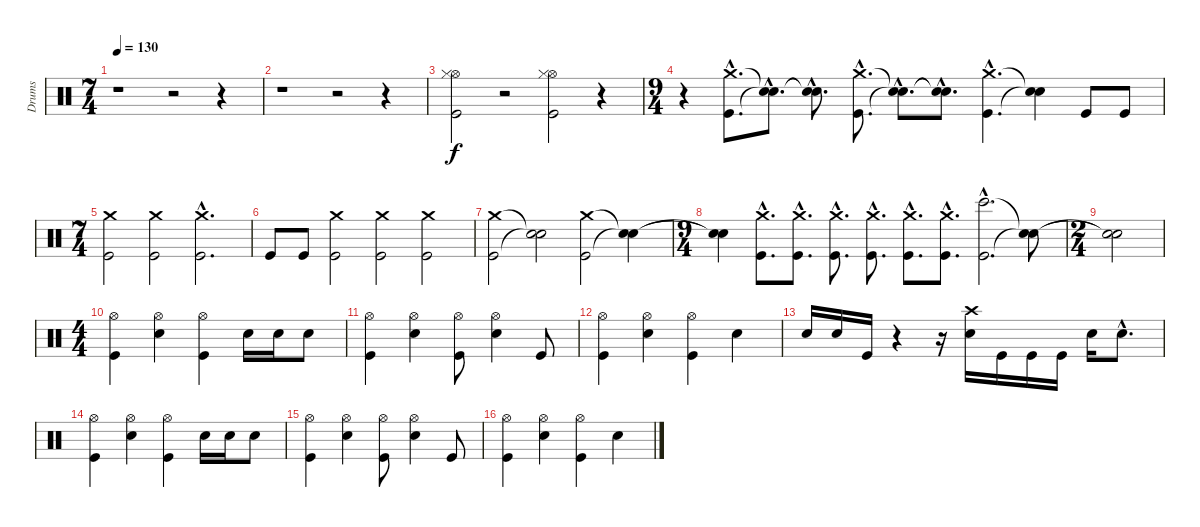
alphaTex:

\track ("Drums" "Drums") {instrument percussion}
\staff {score}
\articulation defaults
\ts (7 4)
\tempo 130
\clef neutral
\ks c
r.1{dy f} r.2 r.4 |
r.1 r.2 r.4 |
("Hi-Hat (open)" "Hi-Hat (closed)"{x} "Kick (hit)").2 r.2 ("Hi-Hat (open)" "Hi-Hat (closed)"{x} "Kick (hit)").2 r.4 |
\ts (9 4)
r.4 ("Crash medium (hit)"{hac} "Kick (hit)"{hac}).8{d} ("Snare (hit)"{hac t} "Snare (hit)"{hac t}).8{d} ("Snare (hit)"{hac t} "Snare (hit)"{hac t}).8{d} ("Crash medium (hit)"{hac} "Kick (hit)"{hac}).8{d} ("Snare (hit)"{hac t} "Snare (hit)"{hac t}).8{d} ("Snare (hit)"{hac t} "Snare (hit)"{hac t}).8{d} ("Crash medium (hit)"{hac} "Kick (hit)"{hac}).4{d} ("Snare (hit)"{t} "Snare (hit)"{t}).4 "Kick (hit)".8 "Kick (hit)".8 |
\ts (7 4)
("Crash medium (hit)" "Kick (hit)").2 ("Crash medium (hit)" "Kick (hit)").2 ("Crash medium (hit)"{hac} "Kick (hit)"{hac}).2{d} |
"Kick (hit)".8 "Kick (hit)".8 ("Crash medium (hit)" "Kick (hit)").2 ("Crash medium (hit)" "Kick (hit)").2 ("Crash medium (hit)" "Kick (hit)").2 |
("Crash medium (hit)" "Kick (hit)").2 ("Snare (hit)"{t} "Snare (hit)"{t}).2 ("Crash medium (hit)" "Kick (hit)").2 ("Snare (hit)"{t} "Snare (hit)"{t}).4 |
\ts (9 4)
("Snare (hit)"{t} "Snare (hit)"{t}).4 ("Crash medium (hit)"{hac} "Kick (hit)"{hac}).8{d} ("Crash medium (hit)"{hac} "Kick (hit)"{hac}).8{d} ("Crash medium (hit)"{hac} "Kick (hit)"{hac}).8{d} ("Crash medium (hit)"{hac} "Kick (hit)"{hac}).8{d} ("Crash medium (hit)"{hac} "Kick (hit)"{hac}).8{d} ("Crash medium (hit)"{hac} "Kick (hit)"{hac}).8{d} ("Bongo High (hit)"{hac} "Kick (hit)"{hac}).2{d} ("Snare (hit)"{t} "Snare (hit)"{t}).8 |
\ts (2 4)
("Snare (hit)"{t} "Snare (hit)"{t}).2 |
\ts (4 4)
("Kick (hit)" "Hi-Hat (open)").4 ("Snare (hit) 2" "Hi-Hat (open)").4 ("Kick (hit)" "Hi-Hat (open)").4 "Snare (hit) 2".16 "Snare (hit) 2".16 "Snare (hit) 2".8 |
("Hi-Hat (open)" "Kick (hit)").4 ("Hi-Hat (open)" "Snare (hit) 2").4 ("Hi-Hat (open)" "Kick (hit)").8 ("Hi-Hat (open)" "Snare (hit) 2").4 "Kick (hit)".8 |
("Hi-Hat (open)" "Kick (hit)").4 ("Hi-Hat (open)" "Snare (hit) 2").4 ("Hi-Hat (open)" "Kick (hit)").4 "Snare (hit) 2".4 |
"Snare (hit) 2".16 "Snare (hit) 2".16 "Kick (hit)".16 r.4 r.16 ("Crash high (hit)" "Snare (hit) 2").16 "Kick (hit)".16 "Kick (hit)".16 "Kick (hit)".16 "Snare (hit) 2".16 "Snare (hit) 2"{hac}.8{d} |
("Kick (hit)" "Hi-Hat (open)").4 ("Snare (hit) 2" "Hi-Hat (open)").4 ("Kick (hit)" "Hi-Hat (open)").4 "Snare (hit) 2".16 "Snare (hit) 2".16 "Snare (hit) 2".8 |
("Hi-Hat (open)" "Kick (hit)").4 ("Hi-Hat (open)" "Snare (hit) 2").4 ("Hi-Hat (open)" "Kick (hit)").8 ("Hi-Hat (open)" "Snare (hit) 2").4 "Kick (hit)".8 |
("Hi-Hat (open)" "Kick (hit)").4 ("Hi-Hat (open)" "Snare (hit) 2").4 ("Hi-Hat (open)" "Kick (hit)").4 "Snare (hit) 2".4
